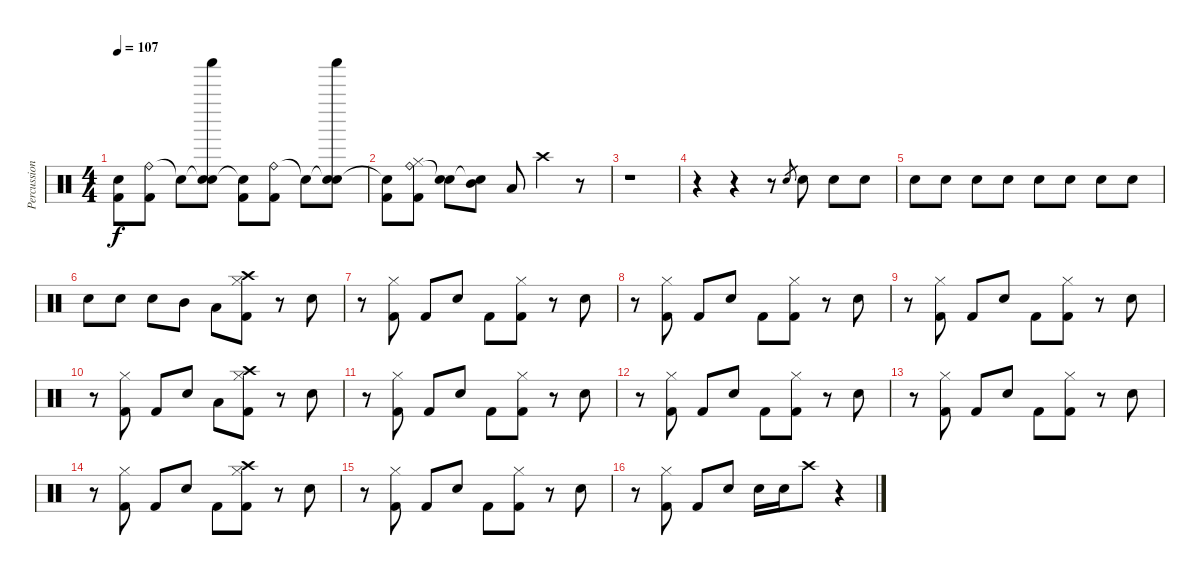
\track ("Percussion" "Percussion") {instrument percussion}
\staff {score}
\articulation defaults
\ts (4 4)
\tempo 107
\clef neutral
\ks c
("Snare (hit)"{t} "Kick (hit) 2").8{dy f} ("Ride (bell)" "Kick (hit) 2").8 "Snare (hit)"{t}.8 ("Snare (hit)"{t} "Shaker (hit)" "Electric Snare (hit)").8 ("Snare (hit)"{t} "Kick (hit) 2").8 ("Ride (bell)" "Kick (hit) 2").8 "Snare (hit)"{t}.8 ("Snare (hit)"{t} "Shaker (hit)" "Electric Snare (hit)").8 |
("Snare (hit)"{t} "Kick (hit) 2").8 ("Ride (bell)" "Hi-Hat (closed)" "Kick (hit) 2").8 ("Snare (hit)"{t} "Electric Snare (hit)").8 ("Snare (hit)"{t} "Mid Tom (hit)").8 "Low Tom (hit)".8 "Crash high (hit)".4 r.8 |
r.1 |
r.4 r.4 r.8 "Electric Snare (hit)".8{gr} "Electric Snare (hit)".8 "Electric Snare (hit)".8 "Electric Snare (hit)".8 |
"Electric Snare (hit)".8 "Electric Snare (hit)".8 "Electric Snare (hit)".8 "Electric Snare (hit)".8 "Electric Snare (hit)".8 "Electric Snare (hit)".8 "Electric Snare (hit)".8 "Electric Snare (hit)".8 |
"Electric Snare (hit)".8 "Electric Snare (hit)".8 "Electric Snare (hit)".8 "Mid Tom (hit)".8 "Low Tom (hit)".8 ("Crash high (hit)" "Hi-Hat (closed)" "Kick (hit) 2").8 r.8 "Electric Snare (hit)".8 |
r.8 ("Hi-Hat (closed)" "Kick (hit) 2").8 "Kick (hit) 2".8 "Electric Snare (hit)".8 "Kick (hit) 2".8 ("Hi-Hat (closed)" "Kick (hit) 2").8 r.8 "Electric Snare (hit)".8 |
r.8 ("Hi-Hat (closed)" "Kick (hit) 2").8 "Kick (hit) 2".8 "Electric Snare (hit)".8 "Kick (hit) 2".8 ("Hi-Hat (closed)" "Kick (hit) 2").8 r.8 "Electric Snare (hit)".8 |
r.8 ("Hi-Hat (closed)" "Kick (hit) 2").8 "Kick (hit) 2".8 "Electric Snare (hit)".8 "Kick (hit) 2".8 ("Hi-Hat (closed)" "Kick (hit) 2").8 r.8 "Electric Snare (hit)".8 |
r.8 ("Hi-Hat (closed)" "Kick (hit) 2").8 "Kick (hit) 2".8 "Electric Snare (hit)".8 "Low Tom (hit)".8 ("Crash high (hit)" "Hi-Hat (closed)" "Kick (hit) 2").8 r.8 "Electric Snare (hit)".8 |
r.8 ("Hi-Hat (closed)" "Kick (hit) 2").8 "Kick (hit) 2".8 "Electric Snare (hit)".8 "Kick (hit) 2".8 ("Hi-Hat (closed)" "Kick (hit) 2").8 r.8 "Electric Snare (hit)".8 |
r.8 ("Hi-Hat (closed)" "Kick (hit) 2").8 "Kick (hit) 2".8 "Electric Snare (hit)".8 "Kick (hit) 2".8 ("Hi-Hat (closed)" "Kick (hit) 2").8 r.8 "Electric Snare (hit)".8 |
r.8 ("Hi-Hat (closed)" "Kick (hit) 2").8 "Kick (hit) 2".8 "Electric Snare (hit)".8 "Kick (hit) 2".8 ("Hi-Hat (closed)" "Kick (hit) 2").8 r.8 "Electric Snare (hit)".8 |
r.8 ("Hi-Hat (closed)" "Kick (hit) 2").8 "Kick (hit) 2".8 "Electric Snare (hit)".8 "Kick (hit) 2".8 ("Crash high (hit)" "Hi-Hat (closed)" "Kick (hit) 2").8 r.8 "Electric Snare (hit)".8 |
r.8 ("Hi-Hat (closed)" "Kick (hit) 2").8 "Kick (hit) 2".8 "Electric Snare (hit)".8 "Kick (hit) 2".8 ("Hi-Hat (closed)" "Kick (hit) 2").8 r.8 "Electric Snare (hit)".8 |
r.8 ("Hi-Hat (closed)" "Kick (hit) 2").8 "Kick (hit) 2".8 "Electric Snare (hit)".8 "Electric Snare (hit)".16 "Electric Snare (hit)".16 "Crash high (hit)".8 r.4
